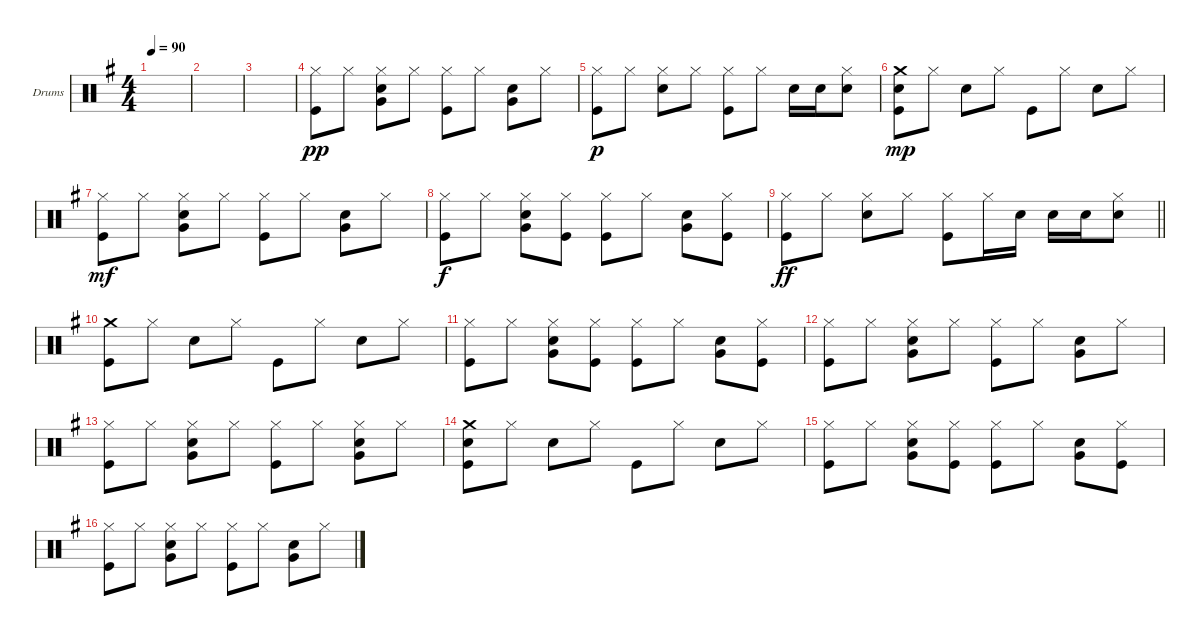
\defaultSystemsLayout 4
\bracketExtendMode groupsimilarinstruments
\firstSystemTrackNameOrientation horizontal
\otherSystemsTrackNameOrientation horizontal
\track ("Drumkit" "Drums") {instrument percussion}
\staff {score}
\articulation defaults
\ts (4 4)
\tempo 90
\clef neutral
\ks g
|
|
|
("Kick (hit)" "Hi-Hat (closed)").8{dy pp} "Hi-Hat (closed)".8 ("Snare (hit) 2" "Hi-Hat (closed)" "Very Low Tom (hit)").8 "Hi-Hat (closed)".8 ("Kick (hit)" "Hi-Hat (closed)").8 "Hi-Hat (closed)".8 ("Snare (hit) 2" "Very Low Tom (hit)").8 "Hi-Hat (closed)".8 |
("Kick (hit)" "Hi-Hat (closed)").8{dy p} "Hi-Hat (closed)".8 ("Snare (hit) 2" "Hi-Hat (closed)").8 "Hi-Hat (closed)".8 ("Kick (hit)" "Hi-Hat (closed)").8 "Hi-Hat (closed)".8 "Snare (hit) 2".16 "Snare (hit) 2".16 ("Snare (hit) 2" "Hi-Hat (closed)").8 |
("Kick (hit)" "Snare (hit) 2" "Crash medium (hit)").8{dy mp} "Hi-Hat (closed)".8 "Snare (hit) 2".8 "Hi-Hat (closed)".8 "Kick (hit)".8 "Hi-Hat (closed)".8 "Snare (hit) 2".8 "Hi-Hat (closed)".8 |
("Kick (hit)" "Hi-Hat (closed)").8{dy mf} "Hi-Hat (closed)".8 ("Snare (hit) 2" "Hi-Hat (closed)" "Very Low Tom (hit)").8 "Hi-Hat (closed)".8 ("Kick (hit)" "Hi-Hat (closed)").8 "Hi-Hat (closed)".8 ("Snare (hit) 2" "Very Low Tom (hit)").8 "Hi-Hat (closed)".8 |
("Kick (hit)" "Hi-Hat (closed)").8{dy f} "Hi-Hat (closed)".8 ("Snare (hit) 2" "Hi-Hat (closed)" "Very Low Tom (hit)").8 ("Kick (hit)" "Hi-Hat (closed)").8 ("Kick (hit)" "Hi-Hat (closed)").8 "Hi-Hat (closed)".8 ("Snare (hit) 2" "Very Low Tom (hit)").8 ("Kick (hit)" "Hi-Hat (closed)").8 |
\barLineRight lightlight
("Kick (hit)" "Hi-Hat (closed)").8{dy ff} "Hi-Hat (closed)".8 ("Snare (hit) 2" "Hi-Hat (closed)").8 "Hi-Hat (closed)".8 ("Kick (hit)" "Hi-Hat (closed)").8 "Hi-Hat (closed)".16 "Snare (hit) 2".16 "Snare (hit) 2".16 "Snare (hit) 2".16 ("Snare (hit) 2" "Hi-Hat (closed)").8 |
("Kick (hit)" "Crash medium (hit)").8 "Hi-Hat (closed)".8 "Snare (hit) 2".8 "Hi-Hat (closed)".8 "Kick (hit)".8 "Hi-Hat (closed)".8 "Snare (hit) 2".8 "Hi-Hat (closed)".8 |
("Kick (hit)" "Hi-Hat (closed)").8 "Hi-Hat (closed)".8 ("Snare (hit) 2" "Hi-Hat (closed)" "Very Low Tom (hit)").8 ("Kick (hit)" "Hi-Hat (closed)").8 ("Kick (hit)" "Hi-Hat (closed)").8 "Hi-Hat (closed)".8 ("Snare (hit) 2" "Very Low Tom (hit)").8 ("Kick (hit)" "Hi-Hat (closed)").8 |
("Kick (hit)" "Hi-Hat (closed)").8 "Hi-Hat (closed)".8 ("Snare (hit) 2" "Hi-Hat (closed)" "Very Low Tom (hit)").8 "Hi-Hat (closed)".8 ("Kick (hit)" "Hi-Hat (closed)").8 "Hi-Hat (closed)".8 ("Snare (hit) 2" "Very Low Tom (hit)").8 "Hi-Hat (closed)".8 |
("Kick (hit)" "Hi-Hat (closed)").8 "Hi-Hat (closed)".8 ("Snare (hit) 2" "Hi-Hat (closed)" "Very Low Tom (hit)").8 "Hi-Hat (closed)".8 ("Kick (hit)" "Hi-Hat (closed)").8 "Hi-Hat (closed)".8 ("Snare (hit) 2" "Hi-Hat (closed)" "Very Low Tom (hit)").8 "Hi-Hat (closed)".8 |
("Kick (hit)" "Snare (hit) 2" "Crash medium (hit)").8 "Hi-Hat (closed)".8 "Snare (hit) 2".8 "Hi-Hat (closed)".8 "Kick (hit)".8 "Hi-Hat (closed)".8 "Snare (hit) 2".8 "Hi-Hat (closed)".8 |
("Kick (hit)" "Hi-Hat (closed)").8 "Hi-Hat (closed)".8 ("Snare (hit) 2" "Hi-Hat (closed)" "Very Low Tom (hit)").8 ("Kick (hit)" "Hi-Hat (closed)").8 ("Kick (hit)" "Hi-Hat (closed)").8 "Hi-Hat (closed)".8 ("Snare (hit) 2" "Very Low Tom (hit)").8 ("Kick (hit)" "Hi-Hat (closed)").8 |
("Kick (hit)" "Hi-Hat (closed)").8 "Hi-Hat (closed)".8 ("Snare (hit) 2" "Hi-Hat (closed)" "Very Low Tom (hit)").8 "Hi-Hat (closed)".8 ("Kick (hit)" "Hi-Hat (closed)").8 "Hi-Hat (closed)".8 ("Snare (hit) 2" "Very Low Tom (hit)").8 "Hi-Hat (closed)".8
